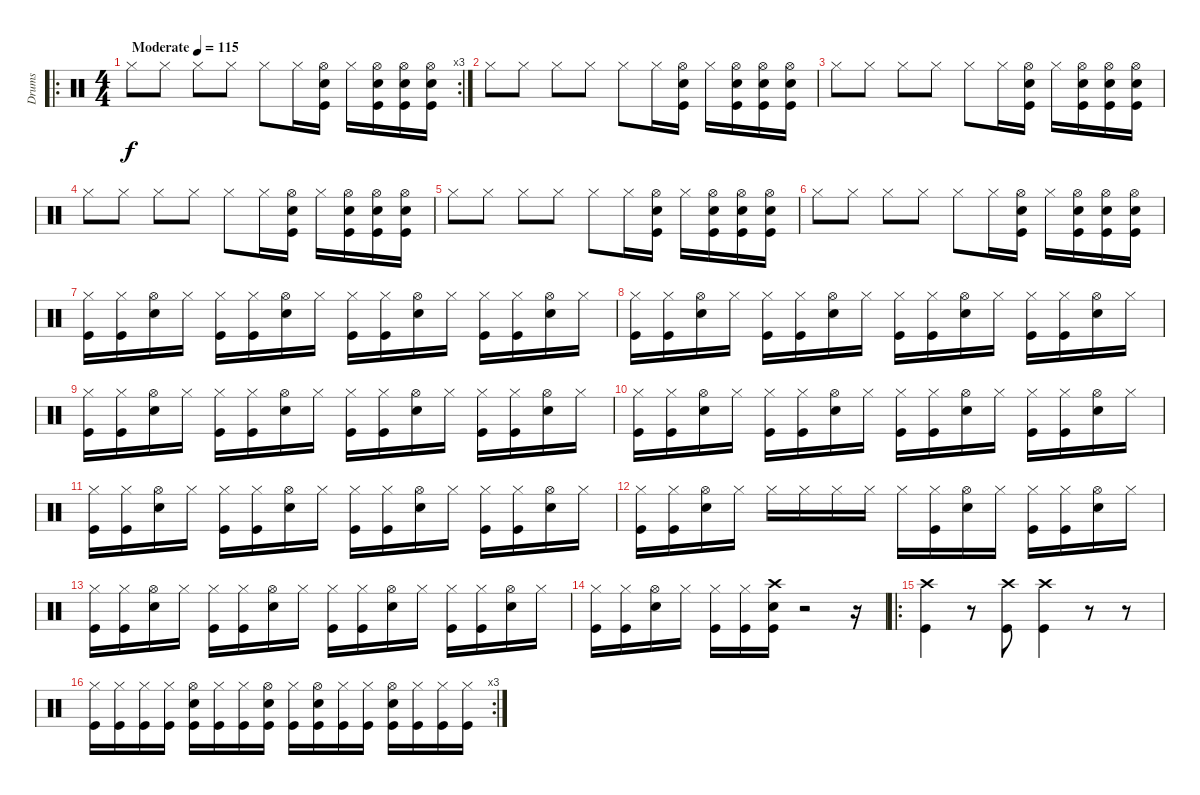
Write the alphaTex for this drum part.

\track ("Drums" "Drums") {instrument percussion}
\staff {score}
\articulation defaults
\ro
\rc 3
\ts (4 4)
\tempo (115 "Moderate")
\clef neutral
\ks c "Hi-Hat (closed)".8{dy f} "Hi-Hat (closed)".8 "Hi-Hat (closed)".8 "Hi-Hat (closed)".8 "Hi-Hat (closed)".8 "Hi-Hat (closed)".16
("Hi-Hat (open)" "Snare (hit) 2" "Kick (hit)").16 "Hi-Hat (closed)".16 ("Hi-Hat (open)" "Snare (hit) 2" "Kick (hit)").16 ("Hi-Hat (open)" "Snare (hit) 2" "Kick (hit)").16 ("Hi-Hat (open)" "Snare (hit) 2" "Kick (hit)").16 |
"Hi-Hat (closed)".8 "Hi-Hat (closed)".8 "Hi-Hat (closed)".8 "Hi-Hat (closed)".8 "Hi-Hat (closed)".8 "Hi-Hat (closed)".16 ("Hi-Hat (open)" "Snare (hit) 2" "Kick (hit)").16 "Hi-Hat (closed)".16 ("Hi-Hat (open)" "Snare (hit) 2" "Kick (hit)").16 ("Hi-Hat (open)" "Snare (hit) 2" "Kick (hit)").16 ("Hi-Hat (open)" "Snare (hit) 2" "Kick (hit)").16 |
"Hi-Hat (closed)".8 "Hi-Hat (closed)".8 "Hi-Hat (closed)".8 "Hi-Hat (closed)".8 "Hi-Hat (closed)".8 "Hi-Hat (closed)".16 ("Hi-Hat (open)" "Snare (hit) 2" "Kick (hit)").16 "Hi-Hat (closed)".16 ("Hi-Hat (open)" "Snare (hit) 2" "Kick (hit)").16 ("Hi-Hat (open)" "Snare (hit) 2" "Kick (hit)").16 ("Hi-Hat (open)" "Snare (hit) 2" "Kick (hit)").16 |
"Hi-Hat (closed)".8 "Hi-Hat (closed)".8 "Hi-Hat (closed)".8 "Hi-Hat (closed)".8 "Hi-Hat (closed)".8 "Hi-Hat (closed)".16 ("Hi-Hat (open)" "Snare (hit) 2" "Kick (hit)").16 "Hi-Hat (closed)".16 ("Hi-Hat (open)" "Snare (hit) 2" "Kick (hit)").16 ("Hi-Hat (open)" "Snare (hit) 2" "Kick (hit)").16 ("Hi-Hat (open)" "Snare (hit) 2" "Kick (hit)").16 |
"Hi-Hat (closed)".8 "Hi-Hat (closed)".8 "Hi-Hat (closed)".8 "Hi-Hat (closed)".8 "Hi-Hat (closed)".8 "Hi-Hat (closed)".16 ("Hi-Hat (open)" "Snare (hit) 2" "Kick (hit)").16 "Hi-Hat (closed)".16 ("Hi-Hat (open)" "Snare (hit) 2" "Kick (hit)").16 ("Hi-Hat (open)" "Snare (hit) 2" "Kick (hit)").16 ("Hi-Hat (open)" "Snare (hit) 2" "Kick (hit)").16 |
"Hi-Hat (closed)".8 "Hi-Hat (closed)".8 "Hi-Hat (closed)".8 "Hi-Hat (closed)".8 "Hi-Hat (closed)".8 "Hi-Hat (closed)".16 ("Hi-Hat (open)" "Snare (hit) 2" "Kick (hit)").16 "Hi-Hat (closed)".16 ("Hi-Hat (open)" "Snare (hit) 2" "Kick (hit)").16 ("Hi-Hat (open)" "Snare (hit) 2" "Kick (hit)").16 ("Hi-Hat (open)" "Snare (hit) 2" "Kick (hit)").16 |
("Hi-Hat (closed)" "Kick (hit)").16 ("Hi-Hat (closed)" "Kick (hit)").16 ("Hi-Hat (open)" "Snare (hit) 2").16 "Hi-Hat (closed)".16 ("Hi-Hat (closed)" "Kick (hit)").16 ("Hi-Hat (closed)" "Kick (hit)").16 ("Hi-Hat (open)" "Snare (hit) 2").16 "Hi-Hat (closed)".16 ("Hi-Hat (closed)" "Kick (hit)").16 ("Hi-Hat (closed)" "Kick (hit)").16 ("Hi-Hat (open)" "Snare (hit) 2").16 "Hi-Hat (closed)".16 ("Hi-Hat (closed)" "Kick (hit)").16 ("Hi-Hat (closed)" "Kick (hit)").16 ("Hi-Hat (open)" "Snare (hit) 2").16 "Hi-Hat (closed)".16 |
("Hi-Hat (closed)" "Kick (hit)").16 ("Hi-Hat (closed)" "Kick (hit)").16 ("Hi-Hat (open)" "Snare (hit) 2").16 "Hi-Hat (closed)".16 ("Hi-Hat (closed)" "Kick (hit)").16 ("Hi-Hat (closed)" "Kick (hit)").16 ("Hi-Hat (open)" "Snare (hit) 2").16 "Hi-Hat (closed)".16 ("Hi-Hat (closed)" "Kick (hit)").16 ("Hi-Hat (closed)" "Kick (hit)").16 ("Hi-Hat (open)" "Snare (hit) 2").16 "Hi-Hat (closed)".16 ("Hi-Hat (closed)" "Kick (hit)").16 ("Hi-Hat (closed)" "Kick (hit)").16 ("Hi-Hat (open)" "Snare (hit) 2").16 "Hi-Hat (closed)".16 |
("Hi-Hat (closed)" "Kick (hit)").16 ("Hi-Hat (closed)" "Kick (hit)").16 ("Hi-Hat (open)" "Snare (hit) 2").16 "Hi-Hat (closed)".16 ("Hi-Hat (closed)" "Kick (hit)").16 ("Hi-Hat (closed)" "Kick (hit)").16 ("Hi-Hat (open)" "Snare (hit) 2").16 "Hi-Hat (closed)".16 ("Hi-Hat (closed)" "Kick (hit)").16 ("Hi-Hat (closed)" "Kick (hit)").16 ("Hi-Hat (open)" "Snare (hit) 2").16 "Hi-Hat (closed)".16 ("Hi-Hat (closed)" "Kick (hit)").16 ("Hi-Hat (closed)" "Kick (hit)").16 ("Hi-Hat (open)" "Snare (hit) 2").16 "Hi-Hat (closed)".16 |
("Hi-Hat (closed)" "Kick (hit)").16 ("Hi-Hat (closed)" "Kick (hit)").16 ("Hi-Hat (open)" "Snare (hit) 2").16 "Hi-Hat (closed)".16 ("Hi-Hat (closed)" "Kick (hit)").16 ("Hi-Hat (closed)" "Kick (hit)").16 ("Hi-Hat (open)" "Snare (hit) 2").16 "Hi-Hat (closed)".16 ("Hi-Hat (closed)" "Kick (hit)").16 ("Hi-Hat (closed)" "Kick (hit)").16 ("Hi-Hat (open)" "Snare (hit) 2").16 "Hi-Hat (closed)".16 ("Hi-Hat (closed)" "Kick (hit)").16 ("Hi-Hat (closed)" "Kick (hit)").16 ("Hi-Hat (open)" "Snare (hit) 2").16 "Hi-Hat (closed)".16 |
("Hi-Hat (closed)" "Kick (hit)").16 ("Hi-Hat (closed)" "Kick (hit)").16 ("Hi-Hat (open)" "Snare (hit) 2").16 "Hi-Hat (closed)".16 ("Hi-Hat (closed)" "Kick (hit)").16 ("Hi-Hat (closed)" "Kick (hit)").16 ("Hi-Hat (open)" "Snare (hit) 2").16 "Hi-Hat (closed)".16 ("Hi-Hat (closed)" "Kick (hit)").16 ("Hi-Hat (closed)" "Kick (hit)").16 ("Hi-Hat (open)" "Snare (hit) 2").16 "Hi-Hat (closed)".16 ("Hi-Hat (closed)" "Kick (hit)").16 ("Hi-Hat (closed)" "Kick (hit)").16 ("Hi-Hat (open)" "Snare (hit) 2").16 "Hi-Hat (closed)".16 |
("Hi-Hat (closed)" "Kick (hit)").16 ("Hi-Hat (closed)" "Kick (hit)").16 ("Hi-Hat (open)" "Snare (hit) 2").16 "Hi-Hat (closed)".16 "Hi-Hat (closed)".16 "Hi-Hat (closed)".16 "Hi-Hat (closed)".16 "Hi-Hat (closed)".16 "Hi-Hat (closed)".16 ("Hi-Hat (closed)" "Kick (hit)").16 ("Hi-Hat (open)" "Snare (hit) 2").16 "Hi-Hat (closed)".16 ("Hi-Hat (closed)" "Kick (hit)").16 ("Hi-Hat (closed)" "Kick (hit)").16 ("Hi-Hat (open)" "Snare (hit) 2").16 "Hi-Hat (closed)".16 |
("Hi-Hat (closed)" "Kick (hit)").16 ("Hi-Hat (closed)" "Kick (hit)").16 ("Hi-Hat (open)" "Snare (hit) 2").16 "Hi-Hat (closed)".16 ("Hi-Hat (closed)" "Kick (hit)").16 ("Hi-Hat (closed)" "Kick (hit)").16 ("Hi-Hat (open)" "Snare (hit) 2").16 "Hi-Hat (closed)".16 ("Hi-Hat (closed)" "Kick (hit)").16 ("Hi-Hat (closed)" "Kick (hit)").16 ("Hi-Hat (open)" "Snare (hit) 2").16 "Hi-Hat (closed)".16 ("Hi-Hat (closed)" "Kick (hit)").16 ("Hi-Hat (closed)" "Kick (hit)").16 ("Hi-Hat (open)" "Snare (hit) 2").16 "Hi-Hat (closed)".16 |
("Hi-Hat (closed)" "Kick (hit)").16 ("Hi-Hat (closed)" "Kick (hit)").16 ("Hi-Hat (open)" "Snare (hit) 2").16 "Hi-Hat (closed)".16 ("Hi-Hat (closed)" "Kick (hit)").16 ("Hi-Hat (closed)" "Kick (hit)").16 ("Kick (hit)" "Crash high (hit)" "Snare (hit) 2").16 r.2 r.16 |
\ro
("Crash high (hit)" "Kick (hit)").4 r.8 ("Crash high (hit)" "Kick (hit)").8 ("Crash high (hit)" "Kick (hit)").4 r.8 r.8 |
\rc 3
("Hi-Hat (closed)" "Kick (hit)").16 ("Hi-Hat (closed)" "Kick (hit)").16 ("Hi-Hat (closed)" "Kick (hit)").16 ("Hi-Hat (closed)" "Kick (hit)").16 ("Hi-Hat (open)" "Snare (hit) 2" "Kick (hit)").16 ("Hi-Hat (closed)" "Kick (hit)").16 ("Hi-Hat (closed)" "Kick (hit)").16 ("Hi-Hat (open)" "Snare (hit) 2" "Kick (hit)").16 ("Hi-Hat (closed)" "Kick (hit)").16 ("Hi-Hat (open)" "Snare (hit) 2" "Kick (hit)").16 ("Hi-Hat (closed)" "Kick (hit)").16 ("Hi-Hat (closed)" "Kick (hit)").16 ("Hi-Hat (open)" "Snare (hit) 2" "Kick (hit)").16 ("Hi-Hat (closed)" "Kick (hit)").16 ("Hi-Hat (closed)" "Kick (hit)").16 ("Hi-Hat (closed)" "Kick (hit)").16
